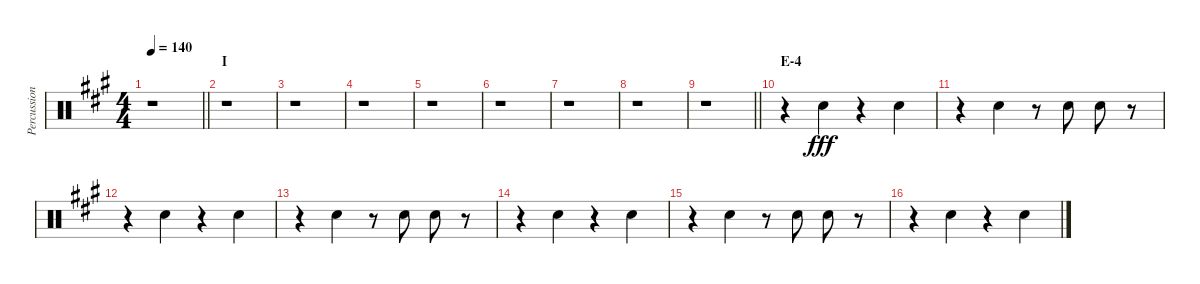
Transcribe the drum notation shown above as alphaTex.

\track ("Percussion" "Percussion") {instrument percussion}
\staff {score}
\articulation defaults
\ts (4 4)
\tempo 140
\clef neutral
\barLineRight lightlight
\ks a
r.1{dy fff} |
\section ("" "I")
r.1 |
r.1 |
r.1 |
r.1 |
r.1 |
r.1 |
r.1 |
\barLineRight lightlight
r.1 |
\section ("" "E-4")
r.4 "Hand Clap (hit)".4 r.4 "Hand Clap (hit)".4 |
r.4 "Hand Clap (hit)".4 r.8 "Hand Clap (hit)".8 "Hand Clap (hit)".8 r.8 |
r.4 "Hand Clap (hit)".4 r.4 "Hand Clap (hit)".4 |
r.4 "Hand Clap (hit)".4 r.8 "Hand Clap (hit)".8 "Hand Clap (hit)".8 r.8 |
r.4 "Hand Clap (hit)".4 r.4 "Hand Clap (hit)".4 |
r.4 "Hand Clap (hit)".4 r.8 "Hand Clap (hit)".8 "Hand Clap (hit)".8 r.8 |
r.4 "Hand Clap (hit)".4 r.4 "Hand Clap (hit)".4
